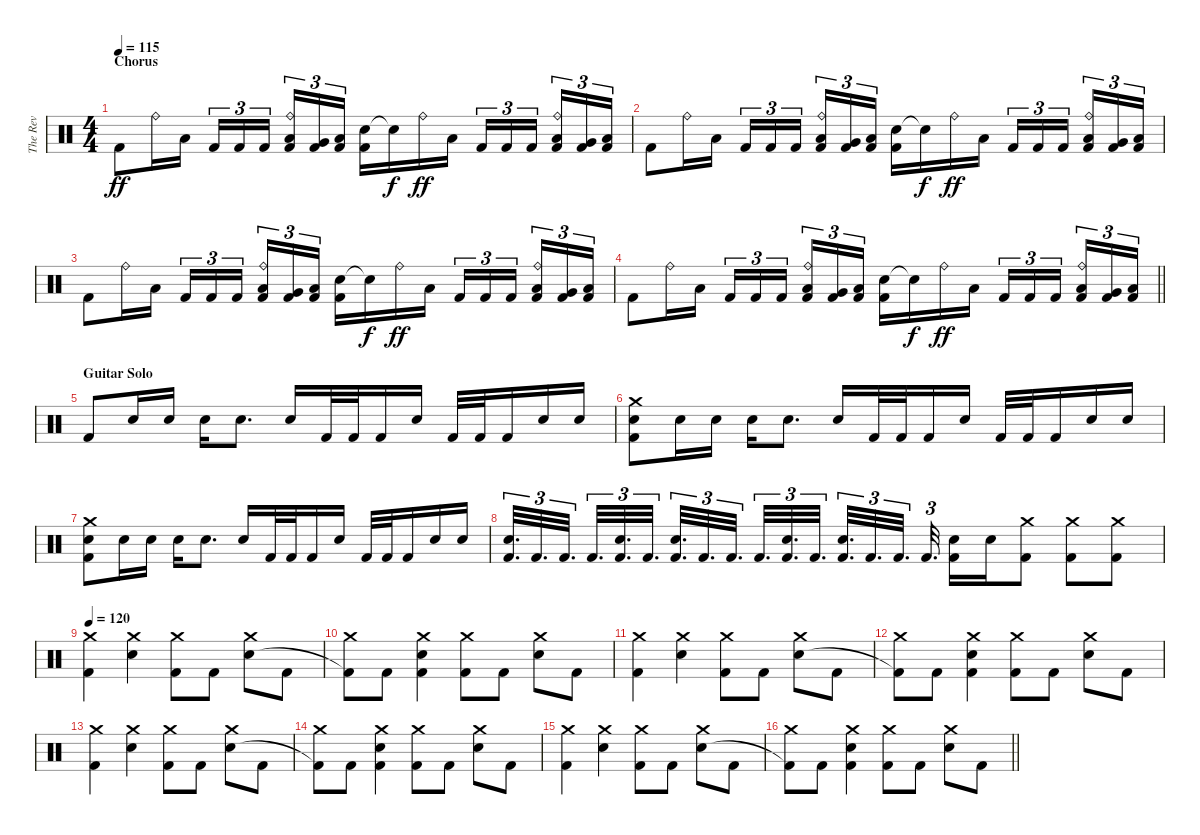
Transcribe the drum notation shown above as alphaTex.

\track ("The Rev" "The Rev") {instrument percussion}
\staff {score}
\articulation defaults
\ts (4 4)
\section ("" "Chorus")
\tempo 115
\clef neutral
\ks c "Kick (hit) 2".8{dy ff} "Ride (bell)".16 "Low Tom (hit)".16 "Kick (hit) 2".16{tu (3 2)} "Kick (hit) 2".16{tu (3 2)} "Kick (hit) 2".16{tu (3 2) beam splitsecondary}
("Ride (bell)" "Low Tom (hit)" "Kick (hit) 2").16{tu (3 2)} ("Very Low Tom (hit)" "Kick (hit) 2").16{tu (3 2)} ("Low Floor Tom (hit)" "Kick (hit) 2").16{tu (3 2)} ("Electric Snare (hit)" "Kick (hit) 2").16 "Snare (hit)"{t}.16{dy f} "Ride (bell)".16{dy ff} "Low Tom (hit)".16 "Kick (hit) 2".16{tu (3 2)} "Kick (hit) 2".16{tu (3 2)} "Kick (hit) 2".16{tu (3 2) beam splitsecondary} ("Ride (bell)" "Low Tom (hit)" "Kick (hit) 2").16{tu (3 2)} ("Very Low Tom (hit)" "Kick (hit) 2").16{tu (3 2)} ("Low Floor Tom (hit)" "Kick (hit) 2").16{tu (3 2)} |
"Kick (hit) 2".8 "Ride (bell)".16 "Low Tom (hit)".16 "Kick (hit) 2".16{tu (3 2)} "Kick (hit) 2".16{tu (3 2)} "Kick (hit) 2".16{tu (3 2) beam splitsecondary} ("Ride (bell)" "Low Tom (hit)" "Kick (hit) 2").16{tu (3 2)} ("Very Low Tom (hit)" "Kick (hit) 2").16{tu (3 2)} ("Low Floor Tom (hit)" "Kick (hit) 2").16{tu (3 2)} ("Electric Snare (hit)" "Kick (hit) 2").16 "Snare (hit)"{t}.16{dy f} "Ride (bell)".16{dy ff} "Low Tom (hit)".16 "Kick (hit) 2".16{tu (3 2)} "Kick (hit) 2".16{tu (3 2)} "Kick (hit) 2".16{tu (3 2) beam splitsecondary} ("Ride (bell)" "Low Tom (hit)" "Kick (hit) 2").16{tu (3 2)} ("Very Low Tom (hit)" "Kick (hit) 2").16{tu (3 2)} ("Low Floor Tom (hit)" "Kick (hit) 2").16{tu (3 2)} |
"Kick (hit) 2".8 "Ride (bell)".16 "Low Tom (hit)".16 "Kick (hit) 2".16{tu (3 2)} "Kick (hit) 2".16{tu (3 2)} "Kick (hit) 2".16{tu (3 2) beam splitsecondary} ("Ride (bell)" "Low Tom (hit)" "Kick (hit) 2").16{tu (3 2)} ("Very Low Tom (hit)" "Kick (hit) 2").16{tu (3 2)} ("Low Floor Tom (hit)" "Kick (hit) 2").16{tu (3 2)} ("Electric Snare (hit)" "Kick (hit) 2").16 "Snare (hit)"{t}.16{dy f} "Ride (bell)".16{dy ff} "Low Tom (hit)".16 "Kick (hit) 2".16{tu (3 2)} "Kick (hit) 2".16{tu (3 2)} "Kick (hit) 2".16{tu (3 2) beam splitsecondary} ("Ride (bell)" "Low Tom (hit)" "Kick (hit) 2").16{tu (3 2)} ("Very Low Tom (hit)" "Kick (hit) 2").16{tu (3 2)} ("Low Floor Tom (hit)" "Kick (hit) 2").16{tu (3 2)} |
\barLineRight lightlight "Kick (hit) 2".8 "Ride (bell)".16 "Low Tom (hit)".16 "Kick (hit) 2".16{tu (3 2)} "Kick (hit) 2".16{tu (3 2)} "Kick (hit) 2".16{tu (3 2) beam splitsecondary}
("Ride (bell)" "Low Tom (hit)" "Kick (hit) 2").16{tu (3 2)} ("Very Low Tom (hit)" "Kick (hit) 2").16{tu (3 2)} ("Low Floor Tom (hit)" "Kick (hit) 2").16{tu (3 2)} ("Electric Snare (hit)" "Kick (hit) 2").16 "Snare (hit)"{t}.16{dy f} "Ride (bell)".16{dy ff} "Low Tom (hit)".16 "Kick (hit) 2".16{tu (3 2)} "Kick (hit) 2".16{tu (3 2)} "Kick (hit) 2".16{tu (3 2) beam splitsecondary} ("Ride (bell)" "Low Tom (hit)" "Kick (hit) 2").16{tu (3 2)} ("Very Low Tom (hit)" "Kick (hit) 2").16{tu (3 2)} ("Low Floor Tom (hit)" "Kick (hit) 2").16{tu (3 2)} |
\section ("" "Guitar Solo")
"Kick (hit) 2".8 "Electric Snare (hit)".16 "Electric Snare (hit)".16 "Electric Snare (hit)".16 "Electric Snare (hit)".8{d} "Electric Snare (hit)".16 "Kick (hit) 2".32 "Kick (hit) 2".32 "Kick (hit) 2".16 "Electric Snare (hit)".16 "Kick (hit) 2".32 "Kick (hit) 2".32 "Kick (hit) 2".16 "Electric Snare (hit)".16 "Electric Snare (hit)".16 |
("Crash medium (hit)" "Electric Snare (hit)" "Kick (hit) 2").8 "Electric Snare (hit)".16 "Electric Snare (hit)".16 "Electric Snare (hit)".16 "Electric Snare (hit)".8{d} "Electric Snare (hit)".16 "Kick (hit) 2".32 "Kick (hit) 2".32 "Kick (hit) 2".16 "Electric Snare (hit)".16 "Kick (hit) 2".32 "Kick (hit) 2".32 "Kick (hit) 2".16 "Electric Snare (hit)".16 "Electric Snare (hit)".16 |
("Crash medium (hit)" "Electric Snare (hit)" "Kick (hit) 2").8 "Electric Snare (hit)".16 "Electric Snare (hit)".16 "Electric Snare (hit)".16 "Electric Snare (hit)".8{d} "Electric Snare (hit)".16 "Kick (hit) 2".32 "Kick (hit) 2".32 "Kick (hit) 2".16 "Electric Snare (hit)".16 "Kick (hit) 2".32 "Kick (hit) 2".32 "Kick (hit) 2".16 "Electric Snare (hit)".16 "Electric Snare (hit)".16 |
("Electric Snare (hit)" "Kick (hit) 2").32{d tu (3 2)} "Kick (hit) 2".32{d tu (3 2)} "Kick (hit) 2".32{d tu (3 2)} "Kick (hit) 2".32{d tu (3 2)} ("Electric Snare (hit)" "Kick (hit) 2").32{d tu (3 2)} "Kick (hit) 2".32{d tu (3 2)} ("Electric Snare (hit)" "Kick (hit) 2").32{d tu (3 2)} "Kick (hit) 2".32{d tu (3 2)} "Kick (hit) 2".32{d tu (3 2)} "Kick (hit) 2".32{d tu (3 2)} ("Electric Snare (hit)" "Kick (hit) 2").32{d tu (3 2)} "Kick (hit) 2".32{d tu (3 2)} ("Electric Snare (hit)" "Kick (hit) 2").32{d tu (3 2)} "Kick (hit) 2".32{d tu (3 2)} "Kick (hit) 2".32{d tu (3 2)} "Kick (hit) 2".32{d tu (3 2)} ("Electric Snare (hit)" "Kick (hit) 2").16 "Electric Snare (hit)".16 ("Crash medium (hit)" "Kick (hit) 2").8 ("Crash medium (hit)" "Kick (hit) 2").8 ("Crash medium (hit)" "Kick (hit) 2").8 |
\tempo 120
("Crash medium (hit)" "Kick (hit) 2").4 ("Crash medium (hit)" "Electric Snare (hit)").4 ("Crash medium (hit)" "Kick (hit) 2").8 "Kick (hit) 2".8 ("Crash medium (hit)" "Electric Snare (hit)").8 "Kick (hit) 2".8 |
("Crash medium (hit)" "Kick (hit) 2"{t}).8 "Kick (hit) 2".8 ("Crash medium (hit)" "Electric Snare (hit)" "Kick (hit) 2").4 ("Crash medium (hit)" "Kick (hit) 2").8 "Kick (hit) 2".8 ("Crash medium (hit)" "Electric Snare (hit)").8 "Kick (hit) 2".8 |
("Crash medium (hit)" "Kick (hit) 2").4 ("Crash medium (hit)" "Electric Snare (hit)").4 ("Crash medium (hit)" "Kick (hit) 2").8 "Kick (hit) 2".8 ("Crash medium (hit)" "Electric Snare (hit)").8 "Kick (hit) 2".8 |
("Crash medium (hit)" "Kick (hit) 2"{t}).8 "Kick (hit) 2".8 ("Crash medium (hit)" "Electric Snare (hit)" "Kick (hit) 2").4 ("Crash medium (hit)" "Kick (hit) 2").8 "Kick (hit) 2".8 ("Crash medium (hit)" "Electric Snare (hit)").8 "Kick (hit) 2".8 |
("Crash medium (hit)" "Kick (hit) 2").4 ("Crash medium (hit)" "Electric Snare (hit)").4 ("Crash medium (hit)" "Kick (hit) 2").8 "Kick (hit) 2".8 ("Crash medium (hit)" "Electric Snare (hit)").8 "Kick (hit) 2".8 |
("Crash medium (hit)" "Kick (hit) 2"{t}).8 "Kick (hit) 2".8 ("Crash medium (hit)" "Electric Snare (hit)" "Kick (hit) 2").4 ("Crash medium (hit)" "Kick (hit) 2").8 "Kick (hit) 2".8 ("Crash medium (hit)" "Electric Snare (hit)").8 "Kick (hit) 2".8 |
("Crash medium (hit)" "Kick (hit) 2").4 ("Crash medium (hit)" "Electric Snare (hit)").4 ("Crash medium (hit)" "Kick (hit) 2").8 "Kick (hit) 2".8 ("Crash medium (hit)" "Electric Snare (hit)").8 "Kick (hit) 2".8 |
\barLineRight lightlight
("Crash medium (hit)" "Kick (hit) 2"{t}).8 "Kick (hit) 2".8 ("Crash medium (hit)" "Electric Snare (hit)" "Kick (hit) 2").4 ("Crash medium (hit)" "Kick (hit) 2").8 "Kick (hit) 2".8 ("Crash medium (hit)" "Electric Snare (hit)").8 "Kick (hit) 2".8
